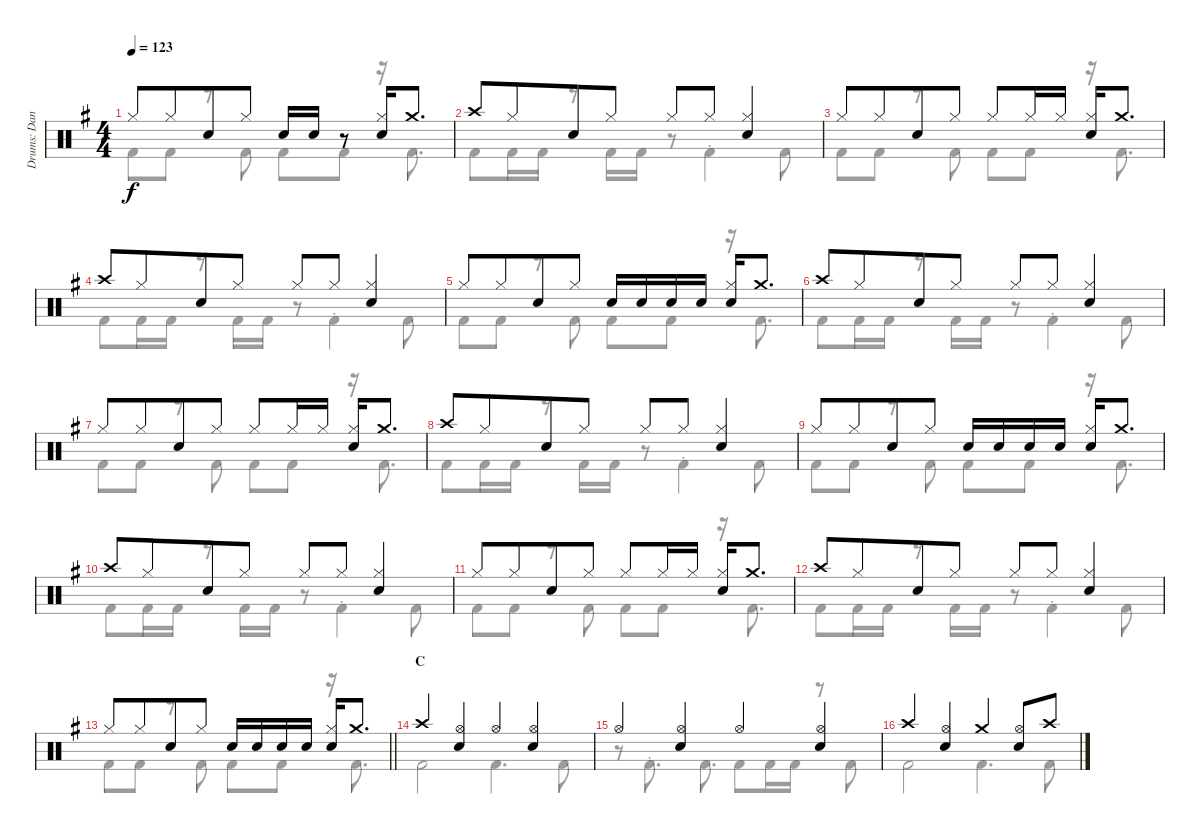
\track ("Drums: Dana" "Drums: Dan") {instrument percussion}
\staff {score}
\articulation defaults
\voice
\ts (4 4)
\tempo 123
\clef neutral
\ks g "Hi-Hat (closed)".8{dy f} "Hi-Hat (closed)".8{beam merge} "Snare (hit) 2".8 "Hi-Hat (closed)".8 "Snare (hit) 2".16 "Snare (hit) 2".16
r.8 ("Hi-Hat (closed)" "Snare (hit) 2").16 "Crash medium (hit)".8{d} |
"Crash high (hit)".8 "Hi-Hat (closed)".8{beam merge} "Snare (hit) 2".8 "Hi-Hat (closed)".8 "Hi-Hat (closed)".8 "Hi-Hat (closed)".8 ("Hi-Hat (closed)" "Snare (hit) 2").4 |
"Hi-Hat (closed)".8 "Hi-Hat (closed)".8{beam merge} "Snare (hit) 2".8 "Hi-Hat (closed)".8 "Hi-Hat (closed)".8 "Hi-Hat (closed)".16 "Hi-Hat (closed)".16 ("Hi-Hat (closed)" "Snare (hit) 2").16 "Crash medium (hit)".8{d} |
"Crash high (hit)".8 "Hi-Hat (closed)".8{beam merge} "Snare (hit) 2".8 "Hi-Hat (closed)".8 "Hi-Hat (closed)".8 "Hi-Hat (closed)".8 ("Hi-Hat (closed)" "Snare (hit) 2").4 |
"Hi-Hat (closed)".8 "Hi-Hat (closed)".8{beam merge} "Snare (hit) 2".8 "Hi-Hat (closed)".8 "Snare (hit) 2".16 "Snare (hit) 2".16 "Snare (hit) 2".16 "Snare (hit) 2".16 ("Hi-Hat (closed)" "Snare (hit) 2").16 "Crash medium (hit)".8{d} |
"Crash high (hit)".8 "Hi-Hat (closed)".8{beam merge} "Snare (hit) 2".8 "Hi-Hat (closed)".8 "Hi-Hat (closed)".8 "Hi-Hat (closed)".8 ("Hi-Hat (closed)" "Snare (hit) 2").4 |
"Hi-Hat (closed)".8 "Hi-Hat (closed)".8{beam merge} "Snare (hit) 2".8 "Hi-Hat (closed)".8 "Hi-Hat (closed)".8 "Hi-Hat (closed)".16 "Hi-Hat (closed)".16 ("Hi-Hat (closed)" "Snare (hit) 2").16 "Crash medium (hit)".8{d} |
"Crash high (hit)".8 "Hi-Hat (closed)".8{beam merge} "Snare (hit) 2".8 "Hi-Hat (closed)".8 "Hi-Hat (closed)".8 "Hi-Hat (closed)".8 ("Hi-Hat (closed)" "Snare (hit) 2").4 |
"Hi-Hat (closed)".8 "Hi-Hat (closed)".8{beam merge} "Snare (hit) 2".8 "Hi-Hat (closed)".8 "Snare (hit) 2".16 "Snare (hit) 2".16 "Snare (hit) 2".16 "Snare (hit) 2".16 ("Hi-Hat (closed)" "Snare (hit) 2").16 "Crash medium (hit)".8{d} |
"Crash high (hit)".8 "Hi-Hat (closed)".8{beam merge} "Snare (hit) 2".8 "Hi-Hat (closed)".8 "Hi-Hat (closed)".8 "Hi-Hat (closed)".8 ("Hi-Hat (closed)" "Snare (hit) 2").4 |
"Hi-Hat (closed)".8 "Hi-Hat (closed)".8{beam merge} "Snare (hit) 2".8 "Hi-Hat (closed)".8 "Hi-Hat (closed)".8 "Hi-Hat (closed)".16 "Hi-Hat (closed)".16 ("Hi-Hat (closed)" "Snare (hit) 2").16 "Crash medium (hit)".8{d} |
"Crash high (hit)".8 "Hi-Hat (closed)".8{beam merge} "Snare (hit) 2".8 "Hi-Hat (closed)".8 "Hi-Hat (closed)".8 "Hi-Hat (closed)".8 ("Hi-Hat (closed)" "Snare (hit) 2").4 |
\barLineRight lightlight "Hi-Hat (closed)".8 "Hi-Hat (closed)".8{beam merge} "Snare (hit) 2".8 "Hi-Hat (closed)".8 "Snare (hit) 2".16 "Snare (hit) 2".16 "Snare (hit) 2".16 "Snare (hit) 2".16
("Hi-Hat (closed)" "Snare (hit) 2").16 "Crash medium (hit)".8{d} |
\section ("" "C")
"Crash high (hit)".4 ("Hi-Hat (open)" "Snare (hit) 2").4 "Hi-Hat (open)".4 ("Hi-Hat (open)" "Snare (hit) 2").4 |
"Hi-Hat (open)".4 ("Hi-Hat (open)" "Snare (hit) 2").4 "Hi-Hat (open)".4 ("Hi-Hat (open)" "Snare (hit) 2").4 |
"Crash high (hit)".4 ("Hi-Hat (open)" "Snare (hit) 2").4 "Crash medium (hit)".4 ("Hi-Hat (open)" "Snare (hit) 2").8 "Crash high (hit)".8
\voice
\clef neutral
\ottava regular
\simile none
\ks g "Kick (hit) 2".8{dy f} "Kick (hit) 2".8
r.8 "Kick (hit) 2".8 "Kick (hit) 2".8 "Kick (hit) 2".8 r.16 "Kick (hit) 2".8{d} |
"Kick (hit) 2".8 "Kick (hit) 2".16 "Kick (hit) 2".16 r.8 "Kick (hit) 2".16 "Kick (hit) 2".16 r.8 "Kick (hit) 2"{st}.4 "Kick (hit) 2".8 |
"Kick (hit) 2".8 "Kick (hit) 2".8 r.8 "Kick (hit) 2".8 "Kick (hit) 2".8 "Kick (hit) 2".8 r.16 "Kick (hit) 2".8{d} |
"Kick (hit) 2".8 "Kick (hit) 2".16 "Kick (hit) 2".16 r.8 "Kick (hit) 2".16 "Kick (hit) 2".16 r.8 "Kick (hit) 2"{st}.4 "Kick (hit) 2".8 |
"Kick (hit) 2".8 "Kick (hit) 2".8 r.8 "Kick (hit) 2".8 "Kick (hit) 2".8 "Kick (hit) 2".8 r.16 "Kick (hit) 2".8{d} |
"Kick (hit) 2".8 "Kick (hit) 2".16 "Kick (hit) 2".16 r.8 "Kick (hit) 2".16 "Kick (hit) 2".16 r.8 "Kick (hit) 2"{st}.4 "Kick (hit) 2".8 |
"Kick (hit) 2".8 "Kick (hit) 2".8 r.8 "Kick (hit) 2".8 "Kick (hit) 2".8 "Kick (hit) 2".8 r.16 "Kick (hit) 2".8{d} |
"Kick (hit) 2".8 "Kick (hit) 2".16 "Kick (hit) 2".16 r.8 "Kick (hit) 2".16 "Kick (hit) 2".16 r.8 "Kick (hit) 2"{st}.4 "Kick (hit) 2".8 |
"Kick (hit) 2".8 "Kick (hit) 2".8 r.8 "Kick (hit) 2".8 "Kick (hit) 2".8 "Kick (hit) 2".8 r.16 "Kick (hit) 2".8{d} |
"Kick (hit) 2".8 "Kick (hit) 2".16 "Kick (hit) 2".16 r.8 "Kick (hit) 2".16 "Kick (hit) 2".16 r.8 "Kick (hit) 2"{st}.4 "Kick (hit) 2".8 |
"Kick (hit) 2".8 "Kick (hit) 2".8 r.8 "Kick (hit) 2".8 "Kick (hit) 2".8 "Kick (hit) 2".8 r.16 "Kick (hit) 2".8{d} |
"Kick (hit) 2".8 "Kick (hit) 2".16 "Kick (hit) 2".16 r.8 "Kick (hit) 2".16 "Kick (hit) 2".16 r.8 "Kick (hit) 2"{st}.4 "Kick (hit) 2".8 |
\barLineRight lightlight "Kick (hit) 2".8 "Kick (hit) 2".8
r.8 "Kick (hit) 2".8 "Kick (hit) 2".8 "Kick (hit) 2".8 r.16 "Kick (hit) 2".8{d} |
"Kick (hit) 2".2 "Kick (hit) 2".4{d} "Kick (hit) 2".8 |
r.8 "Kick (hit) 2"{st}.8{d} "Kick (hit) 2".8{d} "Kick (hit) 2".8 "Kick (hit) 2".16 "Kick (hit) 2".16 r.8 "Kick (hit) 2".8 |
"Kick (hit) 2".2 "Kick (hit) 2".4{d} "Kick (hit) 2".8
